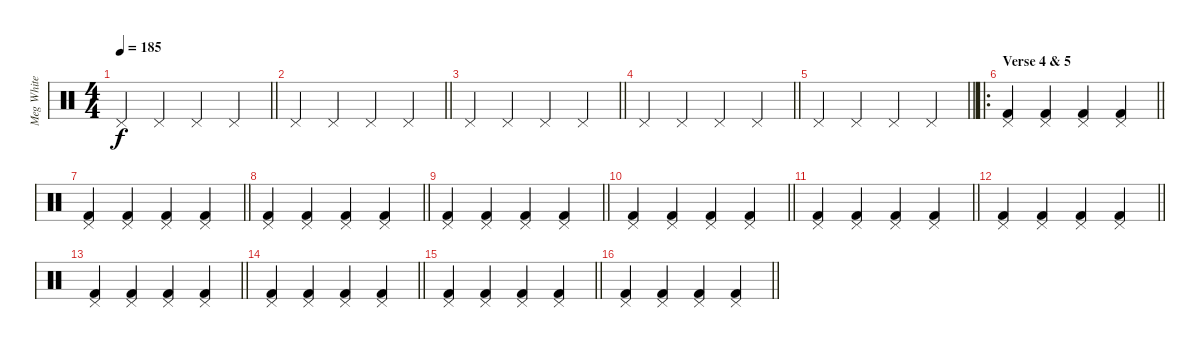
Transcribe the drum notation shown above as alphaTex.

\track ("Meg White (Drums)" "Meg White ") {instrument percussion}
\staff {score}
\articulation defaults
\ts (4 4)
\tempo 185
\clef neutral
\barLineRight lightlight
\ks c "Pedal Hi-Hat (hit)".4{dy f} "Pedal Hi-Hat (hit)".4 "Pedal Hi-Hat (hit)".4 "Pedal Hi-Hat (hit)".4
|
\barLineRight lightlight "Pedal Hi-Hat (hit)".4 "Pedal Hi-Hat (hit)".4 "Pedal Hi-Hat (hit)".4 "Pedal Hi-Hat (hit)".4
|
\barLineRight lightlight "Pedal Hi-Hat (hit)".4 "Pedal Hi-Hat (hit)".4 "Pedal Hi-Hat (hit)".4 "Pedal Hi-Hat (hit)".4
|
\barLineRight lightlight "Pedal Hi-Hat (hit)".4 "Pedal Hi-Hat (hit)".4 "Pedal Hi-Hat (hit)".4 "Pedal Hi-Hat (hit)".4
|
\barLineRight lightlight "Pedal Hi-Hat (hit)".4 "Pedal Hi-Hat (hit)".4 "Pedal Hi-Hat (hit)".4 "Pedal Hi-Hat (hit)".4
|
\ro
\section ("" "Verse 4 & 5")
\barLineRight lightlight
("Kick (hit) 2" "Pedal Hi-Hat (hit)").4 ("Kick (hit) 2" "Pedal Hi-Hat (hit)").4 ("Kick (hit) 2" "Pedal Hi-Hat (hit)").4 ("Kick (hit) 2" "Pedal Hi-Hat (hit)").4 |
\barLineRight lightlight
("Kick (hit) 2" "Pedal Hi-Hat (hit)").4 ("Kick (hit) 2" "Pedal Hi-Hat (hit)").4 ("Kick (hit) 2" "Pedal Hi-Hat (hit)").4 ("Kick (hit) 2" "Pedal Hi-Hat (hit)").4 |
\barLineRight lightlight
("Kick (hit) 2" "Pedal Hi-Hat (hit)").4 ("Kick (hit) 2" "Pedal Hi-Hat (hit)").4 ("Kick (hit) 2" "Pedal Hi-Hat (hit)").4 ("Kick (hit) 2" "Pedal Hi-Hat (hit)").4 |
\barLineRight lightlight
("Kick (hit) 2" "Pedal Hi-Hat (hit)").4 ("Kick (hit) 2" "Pedal Hi-Hat (hit)").4 ("Kick (hit) 2" "Pedal Hi-Hat (hit)").4 ("Kick (hit) 2" "Pedal Hi-Hat (hit)").4 |
\barLineRight lightlight
("Kick (hit) 2" "Pedal Hi-Hat (hit)").4 ("Kick (hit) 2" "Pedal Hi-Hat (hit)").4 ("Kick (hit) 2" "Pedal Hi-Hat (hit)").4 ("Kick (hit) 2" "Pedal Hi-Hat (hit)").4 |
\barLineRight lightlight
("Kick (hit) 2" "Pedal Hi-Hat (hit)").4 ("Kick (hit) 2" "Pedal Hi-Hat (hit)").4 ("Kick (hit) 2" "Pedal Hi-Hat (hit)").4 ("Kick (hit) 2" "Pedal Hi-Hat (hit)").4 |
\barLineRight lightlight
("Kick (hit) 2" "Pedal Hi-Hat (hit)").4 ("Kick (hit) 2" "Pedal Hi-Hat (hit)").4 ("Kick (hit) 2" "Pedal Hi-Hat (hit)").4 ("Kick (hit) 2" "Pedal Hi-Hat (hit)").4 |
\barLineRight lightlight
("Kick (hit) 2" "Pedal Hi-Hat (hit)").4 ("Kick (hit) 2" "Pedal Hi-Hat (hit)").4 ("Kick (hit) 2" "Pedal Hi-Hat (hit)").4 ("Kick (hit) 2" "Pedal Hi-Hat (hit)").4 |
\barLineRight lightlight
("Kick (hit) 2" "Pedal Hi-Hat (hit)").4 ("Kick (hit) 2" "Pedal Hi-Hat (hit)").4 ("Kick (hit) 2" "Pedal Hi-Hat (hit)").4 ("Kick (hit) 2" "Pedal Hi-Hat (hit)").4 |
\barLineRight lightlight
("Kick (hit) 2" "Pedal Hi-Hat (hit)").4 ("Kick (hit) 2" "Pedal Hi-Hat (hit)").4 ("Kick (hit) 2" "Pedal Hi-Hat (hit)").4 ("Kick (hit) 2" "Pedal Hi-Hat (hit)").4 |
\barLineRight lightlight
("Kick (hit) 2" "Pedal Hi-Hat (hit)").4 ("Kick (hit) 2" "Pedal Hi-Hat (hit)").4 ("Kick (hit) 2" "Pedal Hi-Hat (hit)").4 ("Kick (hit) 2" "Pedal Hi-Hat (hit)").4
